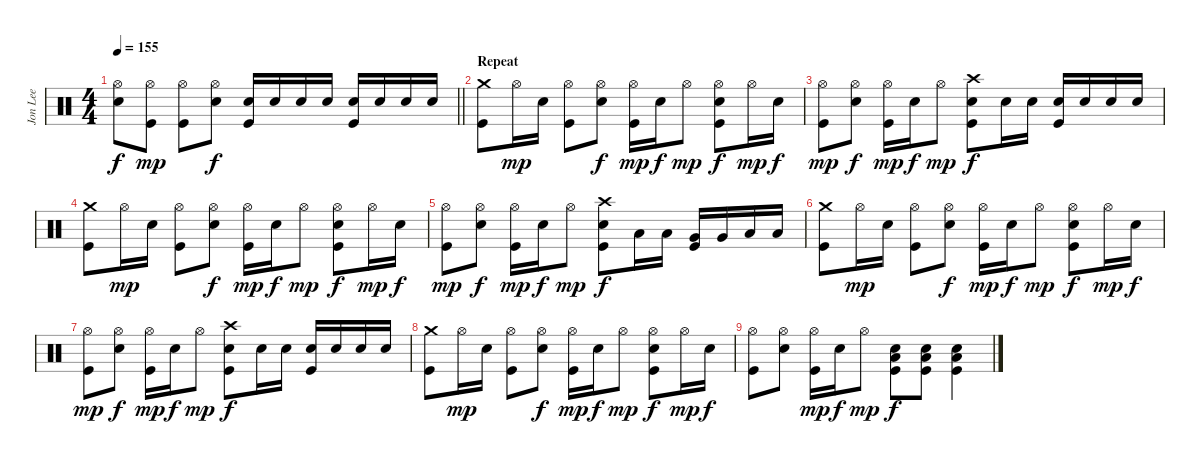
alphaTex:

\track ("Jon Lee" "Jon Lee") {instrument percussion}
\staff {score}
\articulation defaults
\ts (4 4)
\tempo 155
\clef neutral
\barLineRight lightlight
\ks c
("Hi-Hat (open)" "Electric Snare (hit)").8{dy f} ("Hi-Hat (open)" "Kick (hit)").8{dy mp} ("Hi-Hat (open)" "Kick (hit)").8 ("Hi-Hat (open)" "Electric Snare (hit)").8{dy f} ("Electric Snare (hit)" "Kick (hit)").16 "Electric Snare (hit)".16 "Electric Snare (hit)".16 "Electric Snare (hit)".16 ("Electric Snare (hit)" "Kick (hit)").16 "Electric Snare (hit)".16 "Electric Snare (hit)".16 "Electric Snare (hit)".16 |
\section ("" "Repeat")
("Crash medium (hit)" "Kick (hit)").8 "Hi-Hat (open)".16{dy mp} "Electric Snare (hit)".16 ("Hi-Hat (open)" "Kick (hit)").8 ("Hi-Hat (open)" "Electric Snare (hit)").8{dy f} ("Hi-Hat (open)" "Kick (hit)").16{dy mp} "Electric Snare (hit)".16{dy f} "Hi-Hat (open)".8{dy mp} ("Hi-Hat (open)" "Electric Snare (hit)" "Kick (hit)").8{dy f} "Hi-Hat (open)".16{dy mp} "Electric Snare (hit)".16{dy f} |
("Hi-Hat (open)" "Kick (hit)").8{dy mp} ("Hi-Hat (open)" "Electric Snare (hit)").8{dy f} ("Hi-Hat (open)" "Kick (hit)").16{dy mp} "Electric Snare (hit)".16{dy f} "Hi-Hat (open)".8{dy mp} ("Crash high (hit)" "Electric Snare (hit)" "Kick (hit)").8{dy f} "Electric Snare (hit)".16 "Electric Snare (hit)".16 ("Electric Snare (hit)" "Kick (hit)").16 "Electric Snare (hit)".16 "Electric Snare (hit)".16 "Electric Snare (hit)".16 |
("Crash medium (hit)" "Kick (hit)").8 "Hi-Hat (open)".16{dy mp} "Electric Snare (hit)".16 ("Hi-Hat (open)" "Kick (hit)").8 ("Hi-Hat (open)" "Electric Snare (hit)").8{dy f} ("Hi-Hat (open)" "Kick (hit)").16{dy mp} "Electric Snare (hit)".16{dy f} "Hi-Hat (open)".8{dy mp} ("Hi-Hat (open)" "Electric Snare (hit)" "Kick (hit)").8{dy f} "Hi-Hat (open)".16{dy mp} "Electric Snare (hit)".16{dy f} |
("Hi-Hat (open)" "Kick (hit)").8{dy mp} ("Hi-Hat (open)" "Electric Snare (hit)").8{dy f} ("Hi-Hat (open)" "Kick (hit)").16{dy mp} "Electric Snare (hit)".16{dy f} "Hi-Hat (open)".8{dy mp} ("Crash high (hit)" "Electric Snare (hit)" "Kick (hit)").8{dy f} "Low Tom (hit)".16 "Low Tom (hit)".16 ("Very Low Tom (hit)" "Kick (hit)").16 "Very Low Tom (hit)".16 "Low Floor Tom (hit)".16 "Low Floor Tom (hit)".16 |
("Crash medium (hit)" "Kick (hit)").8 "Hi-Hat (open)".16{dy mp} "Electric Snare (hit)".16 ("Hi-Hat (open)" "Kick (hit)").8 ("Hi-Hat (open)" "Electric Snare (hit)").8{dy f} ("Hi-Hat (open)" "Kick (hit)").16{dy mp} "Electric Snare (hit)".16{dy f} "Hi-Hat (open)".8{dy mp} ("Hi-Hat (open)" "Electric Snare (hit)" "Kick (hit)").8{dy f} "Hi-Hat (open)".16{dy mp} "Electric Snare (hit)".16{dy f} |
("Hi-Hat (open)" "Kick (hit)").8{dy mp} ("Hi-Hat (open)" "Electric Snare (hit)").8{dy f} ("Hi-Hat (open)" "Kick (hit)").16{dy mp} "Electric Snare (hit)".16{dy f} "Hi-Hat (open)".8{dy mp} ("Crash high (hit)" "Electric Snare (hit)" "Kick (hit)").8{dy f} "Electric Snare (hit)".16 "Electric Snare (hit)".16 ("Electric Snare (hit)" "Kick (hit)").16 "Electric Snare (hit)".16 "Electric Snare (hit)".16 "Electric Snare (hit)".16 |
("Crash medium (hit)" "Kick (hit)").8 "Hi-Hat (open)".16{dy mp} "Electric Snare (hit)".16 ("Hi-Hat (open)" "Kick (hit)").8 ("Hi-Hat (open)" "Electric Snare (hit)").8{dy f} ("Hi-Hat (open)" "Kick (hit)").16{dy mp} "Electric Snare (hit)".16{dy f} "Hi-Hat (open)".8{dy mp} ("Hi-Hat (open)" "Electric Snare (hit)" "Kick (hit)").8{dy f} "Hi-Hat (open)".16{dy mp} "Electric Snare (hit)".16{dy f} |
("Hi-Hat (open)" "Kick (hit)").8 ("Hi-Hat (open)" "Electric Snare (hit)").8 ("Hi-Hat (open)" "Kick (hit)").16{dy mp} "Electric Snare (hit)".16{dy f} "Hi-Hat (open)".8{dy mp} ("Low Floor Tom (hit)" "Electric Snare (hit)" "Kick (hit)").8{dy f} ("Low Floor Tom (hit)" "Electric Snare (hit)" "Kick (hit)").8 ("Low Floor Tom (hit)" "Electric Snare (hit)" "Kick (hit)").4
